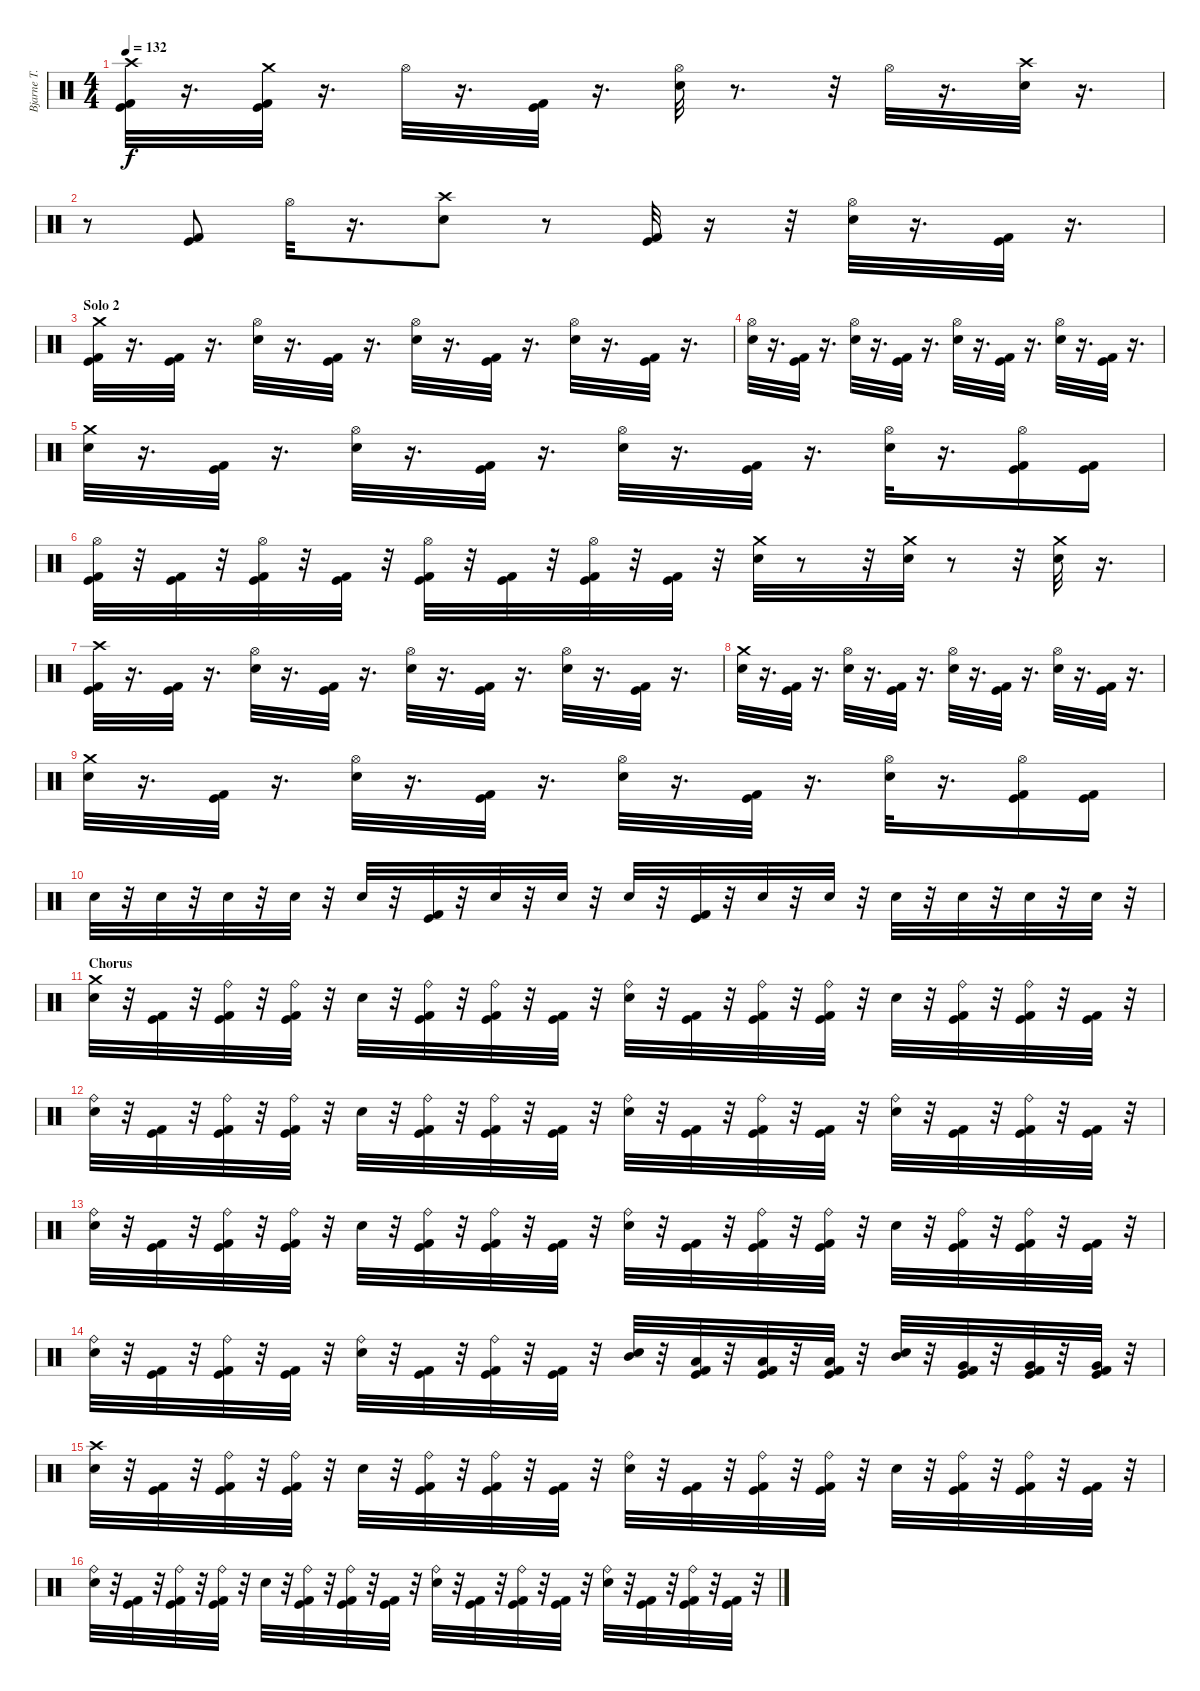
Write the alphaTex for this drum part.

\track ("Bjarne T. Holme" "Bjarne T. ") {instrument percussion}
\staff {score}
\articulation defaults
\ts (4 4)
\tempo 132
\clef neutral
\ks c
("Crash high (hit)" "Kick (hit)" "Kick (hit) 2").32{dy f} r.16{d} ("Crash medium (hit)" "Kick (hit)" "Kick (hit) 2").32 r.16{d} "Hi-Hat (open)".32 r.16{d} ("Kick (hit)" "Kick (hit) 2").32 r.16{d} ("Hi-Hat (open)" "Snare (hit) 2").32 r.8{d} r.32 "Hi-Hat (open)".32 r.16{d} ("Crash high (hit)" "Snare (hit) 2").32 r.16{d} |
r.8 ("Kick (hit)" "Kick (hit) 2").8 "Hi-Hat (open)".32 r.16{d} ("Crash high (hit)" "Snare (hit) 2").8 r.8 ("Kick (hit)" "Kick (hit) 2").32 r.16 r.32 ("Hi-Hat (open)" "Snare (hit) 2").32 r.16{d} ("Kick (hit)" "Kick (hit) 2").32 r.16{d} |
\section ("" "Solo 2")
("Crash medium (hit)" "Kick (hit)" "Kick (hit) 2").32 r.16{d} ("Kick (hit)" "Kick (hit) 2").32 r.16{d} ("Hi-Hat (open)" "Snare (hit) 2").32 r.16{d} ("Kick (hit)" "Kick (hit) 2").32 r.16{d} ("Hi-Hat (open)" "Snare (hit) 2").32 r.16{d} ("Kick (hit)" "Kick (hit) 2").32 r.16{d} ("Hi-Hat (open)" "Snare (hit) 2").32 r.16{d} ("Kick (hit)" "Kick (hit) 2").32 r.16{d} |
("Hi-Hat (open)" "Snare (hit) 2").32 r.16{d} ("Kick (hit)" "Kick (hit) 2").32 r.16{d} ("Hi-Hat (open)" "Snare (hit) 2").32 r.16{d} ("Kick (hit)" "Kick (hit) 2").32 r.16{d} ("Hi-Hat (open)" "Snare (hit) 2").32 r.16{d} ("Kick (hit)" "Kick (hit) 2").32 r.16{d} ("Hi-Hat (open)" "Snare (hit) 2").32 r.16{d} ("Kick (hit)" "Kick (hit) 2").32 r.16{d} |
("Crash medium (hit)" "Snare (hit) 2").32 r.16{d} ("Kick (hit)" "Kick (hit) 2").32 r.16{d} ("Hi-Hat (open)" "Snare (hit) 2").32 r.16{d} ("Kick (hit)" "Kick (hit) 2").32 r.16{d} ("Hi-Hat (open)" "Snare (hit) 2").32 r.16{d} ("Kick (hit)" "Kick (hit) 2").32 r.16{d} ("Hi-Hat (open)" "Snare (hit) 2").32 r.16{d} ("Hi-Hat (open)" "Kick (hit)" "Kick (hit) 2").16 ("Kick (hit)" "Kick (hit) 2").16 |
("Hi-Hat (open)" "Kick (hit)" "Kick (hit) 2").32 r.32 ("Kick (hit)" "Kick (hit) 2").32 r.32 ("Hi-Hat (open)" "Kick (hit)" "Kick (hit) 2").32 r.32 ("Kick (hit)" "Kick (hit) 2").32 r.32 ("Hi-Hat (open)" "Kick (hit)" "Kick (hit) 2").32 r.32 ("Kick (hit)" "Kick (hit) 2").32 r.32 ("Hi-Hat (open)" "Kick (hit)" "Kick (hit) 2").32 r.32 ("Kick (hit)" "Kick (hit) 2").32 r.32 ("Crash medium (hit)" "Snare (hit) 2").32 r.8 r.32 ("Crash medium (hit)" "Snare (hit) 2").32 r.8 r.32 ("Crash medium (hit)" "Snare (hit) 2").32 r.16{d} |
("Crash high (hit)" "Kick (hit)" "Kick (hit) 2").32 r.16{d} ("Kick (hit)" "Kick (hit) 2").32 r.16{d} ("Hi-Hat (open)" "Snare (hit) 2").32 r.16{d} ("Kick (hit)" "Kick (hit) 2").32 r.16{d} ("Hi-Hat (open)" "Snare (hit) 2").32 r.16{d} ("Kick (hit)" "Kick (hit) 2").32 r.16{d} ("Hi-Hat (open)" "Snare (hit) 2").32 r.16{d} ("Kick (hit)" "Kick (hit) 2").32 r.16{d} |
("Crash medium (hit)" "Snare (hit) 2").32 r.16{d} ("Kick (hit)" "Kick (hit) 2").32 r.16{d} ("Hi-Hat (open)" "Snare (hit) 2").32 r.16{d} ("Kick (hit)" "Kick (hit) 2").32 r.16{d} ("Hi-Hat (open)" "Snare (hit) 2").32 r.16{d} ("Kick (hit)" "Kick (hit) 2").32 r.16{d} ("Hi-Hat (open)" "Snare (hit) 2").32 r.16{d} ("Kick (hit)" "Kick (hit) 2").32 r.16{d} |
("Crash medium (hit)" "Snare (hit) 2").32 r.16{d} ("Kick (hit)" "Kick (hit) 2").32 r.16{d} ("Hi-Hat (open)" "Snare (hit) 2").32 r.16{d} ("Kick (hit)" "Kick (hit) 2").32 r.16{d} ("Hi-Hat (open)" "Snare (hit) 2").32 r.16{d} ("Kick (hit)" "Kick (hit) 2").32 r.16{d} ("Hi-Hat (open)" "Snare (hit) 2").32 r.16{d} ("Hi-Hat (open)" "Kick (hit)" "Kick (hit) 2").16 ("Kick (hit)" "Kick (hit) 2").16 |
"Snare (hit) 2".32 r.32 "Snare (hit) 2".32 r.32 "Snare (hit) 2".32 r.32 "Snare (hit) 2".32 r.32 "Snare (hit) 2".32 r.32 ("Kick (hit)" "Kick (hit) 2").32 r.32 "Snare (hit) 2".32 r.32 "Snare (hit) 2".32 r.32 "Snare (hit) 2".32 r.32 ("Kick (hit)" "Kick (hit) 2").32 r.32 "Snare (hit) 2".32 r.32 "Snare (hit) 2".32 r.32 "Snare (hit) 2".32 r.32 "Snare (hit) 2".32 r.32 "Snare (hit) 2".32 r.32 "Snare (hit) 2".32 r.32 |
\section ("" "Chorus")
("Crash medium (hit)" "Snare (hit) 2").32 r.32 ("Kick (hit)" "Kick (hit) 2").32 r.32 ("Ride (bell)" "Kick (hit)" "Kick (hit) 2").32 r.32 ("Ride (bell)" "Kick (hit)" "Kick (hit) 2").32 r.32 "Snare (hit) 2".32 r.32 ("Ride (bell)" "Kick (hit)" "Kick (hit) 2").32 r.32 ("Ride (bell)" "Kick (hit)" "Kick (hit) 2").32 r.32 ("Kick (hit)" "Kick (hit) 2").32 r.32 ("Ride (bell)" "Snare (hit) 2").32 r.32 ("Kick (hit)" "Kick (hit) 2").32 r.32 ("Ride (bell)" "Kick (hit)" "Kick (hit) 2").32 r.32 ("Ride (bell)" "Kick (hit)" "Kick (hit) 2").32 r.32 "Snare (hit) 2".32 r.32 ("Ride (bell)" "Kick (hit)" "Kick (hit) 2").32 r.32 ("Ride (bell)" "Kick (hit)" "Kick (hit) 2").32 r.32 ("Kick (hit)" "Kick (hit) 2").32 r.32 |
("Ride (bell)" "Snare (hit) 2").32 r.32 ("Kick (hit)" "Kick (hit) 2").32 r.32 ("Ride (bell)" "Kick (hit)" "Kick (hit) 2").32 r.32 ("Ride (bell)" "Kick (hit)" "Kick (hit) 2").32 r.32 "Snare (hit) 2".32 r.32 ("Ride (bell)" "Kick (hit)" "Kick (hit) 2").32 r.32 ("Ride (bell)" "Kick (hit)" "Kick (hit) 2").32 r.32 ("Kick (hit)" "Kick (hit) 2").32 r.32 ("Ride (bell)" "Snare (hit) 2").32 r.32 ("Kick (hit)" "Kick (hit) 2").32 r.32 ("Ride (bell)" "Kick (hit)" "Kick (hit) 2").32 r.32 ("Kick (hit)" "Kick (hit) 2").32 r.32 ("Ride (bell)" "Snare (hit) 2").32 r.32 ("Kick (hit)" "Kick (hit) 2").32 r.32 ("Ride (bell)" "Kick (hit)" "Kick (hit) 2").32 r.32 ("Kick (hit)" "Kick (hit) 2").32 r.32 |
("Ride (bell)" "Snare (hit) 2").32 r.32 ("Kick (hit)" "Kick (hit) 2").32 r.32 ("Ride (bell)" "Kick (hit)" "Kick (hit) 2").32 r.32 ("Ride (bell)" "Kick (hit)" "Kick (hit) 2").32 r.32 "Snare (hit) 2".32 r.32 ("Ride (bell)" "Kick (hit)" "Kick (hit) 2").32 r.32 ("Ride (bell)" "Kick (hit)" "Kick (hit) 2").32 r.32 ("Kick (hit)" "Kick (hit) 2").32 r.32 ("Ride (bell)" "Snare (hit) 2").32 r.32 ("Kick (hit)" "Kick (hit) 2").32 r.32 ("Ride (bell)" "Kick (hit)" "Kick (hit) 2").32 r.32 ("Ride (bell)" "Kick (hit)" "Kick (hit) 2").32 r.32 "Snare (hit) 2".32 r.32 ("Ride (bell)" "Kick (hit)" "Kick (hit) 2").32 r.32 ("Ride (bell)" "Kick (hit)" "Kick (hit) 2").32 r.32 ("Kick (hit)" "Kick (hit) 2").32 r.32 |
("Ride (bell)" "Snare (hit) 2").32 r.32 ("Kick (hit)" "Kick (hit) 2").32 r.32 ("Ride (bell)" "Kick (hit)" "Kick (hit) 2").32 r.32 ("Kick (hit)" "Kick (hit) 2").32 r.32 ("Ride (bell)" "Snare (hit) 2").32 r.32 ("Kick (hit)" "Kick (hit) 2").32 r.32 ("Ride (bell)" "Kick (hit)" "Kick (hit) 2").32 r.32 ("Kick (hit)" "Kick (hit) 2").32 r.32 ("Mid Tom (hit)" "Snare (hit) 2").32 r.32 ("Low Tom (hit)" "Kick (hit)" "Kick (hit) 2").32 r.32 ("Low Tom (hit)" "Kick (hit)" "Kick (hit) 2").32 r.32 ("Low Tom (hit)" "Kick (hit)" "Kick (hit) 2").32 r.32 ("Mid Tom (hit)" "Snare (hit) 2").32 r.32 ("Very Low Tom (hit)" "Kick (hit)" "Kick (hit) 2").32 r.32 ("Very Low Tom (hit)" "Kick (hit)" "Kick (hit) 2").32 r.32 ("Very Low Tom (hit)" "Kick (hit)" "Kick (hit) 2").32 r.32 |
("Crash high (hit)" "Snare (hit) 2").32 r.32 ("Kick (hit)" "Kick (hit) 2").32 r.32 ("Ride (bell)" "Kick (hit)" "Kick (hit) 2").32 r.32 ("Ride (bell)" "Kick (hit)" "Kick (hit) 2").32 r.32 "Snare (hit) 2".32 r.32 ("Ride (bell)" "Kick (hit)" "Kick (hit) 2").32 r.32 ("Ride (bell)" "Kick (hit)" "Kick (hit) 2").32 r.32 ("Kick (hit)" "Kick (hit) 2").32 r.32 ("Ride (bell)" "Snare (hit) 2").32 r.32 ("Kick (hit)" "Kick (hit) 2").32 r.32 ("Ride (bell)" "Kick (hit)" "Kick (hit) 2").32 r.32 ("Ride (bell)" "Kick (hit)" "Kick (hit) 2").32 r.32 "Snare (hit) 2".32 r.32 ("Ride (bell)" "Kick (hit)" "Kick (hit) 2").32 r.32 ("Ride (bell)" "Kick (hit)" "Kick (hit) 2").32 r.32 ("Kick (hit)" "Kick (hit) 2").32 r.32 |
("Ride (bell)" "Snare (hit) 2").32 r.32 ("Kick (hit)" "Kick (hit) 2").32 r.32 ("Ride (bell)" "Kick (hit)" "Kick (hit) 2").32 r.32 ("Ride (bell)" "Kick (hit)" "Kick (hit) 2").32 r.32 "Snare (hit) 2".32 r.32 ("Ride (bell)" "Kick (hit)" "Kick (hit) 2").32 r.32 ("Ride (bell)" "Kick (hit)" "Kick (hit) 2").32 r.32 ("Kick (hit)" "Kick (hit) 2").32 r.32 ("Ride (bell)" "Snare (hit) 2").32 r.32 ("Kick (hit)" "Kick (hit) 2").32 r.32 ("Ride (bell)" "Kick (hit)" "Kick (hit) 2").32 r.32 ("Kick (hit)" "Kick (hit) 2").32 r.32 ("Ride (bell)" "Snare (hit) 2").32 r.32 ("Kick (hit)" "Kick (hit) 2").32 r.32 ("Ride (bell)" "Kick (hit)" "Kick (hit) 2").32 r.32 ("Kick (hit)" "Kick (hit) 2").32 r.32
